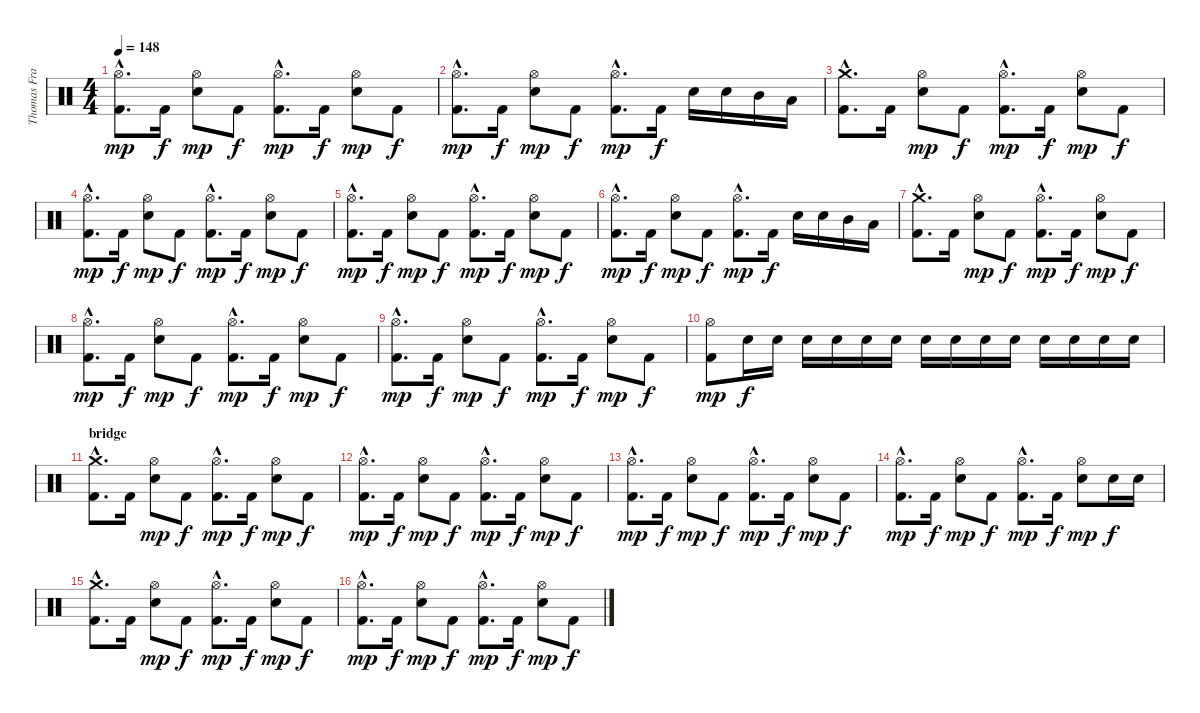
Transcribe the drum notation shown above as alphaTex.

\track ("Thomas Franke" "Thomas Fra") {instrument percussion}
\staff {score}
\articulation defaults
\ts (4 4)
\tempo 148
\clef neutral
\ks c
("Kick (hit) 2"{hac} "Hi-Hat (open)"{hac}).8{d dy mp} "Kick (hit) 2".16{dy f} ("Hi-Hat (open)" "Snare (hit) 2").8{dy mp} "Kick (hit) 2".8{dy f} ("Kick (hit) 2"{hac} "Hi-Hat (open)"{hac}).8{d dy mp} "Kick (hit) 2".16{dy f} ("Hi-Hat (open)" "Snare (hit) 2").8{dy mp} "Kick (hit) 2".8{dy f} |
("Kick (hit) 2"{hac} "Hi-Hat (open)"{hac}).8{d dy mp} "Kick (hit) 2".16{dy f} ("Hi-Hat (open)" "Snare (hit) 2").8{dy mp} "Kick (hit) 2".8{dy f} ("Kick (hit) 2"{hac} "Hi-Hat (open)"{hac}).8{d dy mp} "Kick (hit) 2".16{dy f} "Snare (hit) 2".16 "Snare (hit) 2".16 "Mid Tom (hit)".16 "Low Tom (hit)".16 |
("Kick (hit) 2"{hac} "Crash medium (hit)"{hac}).8{d} "Kick (hit) 2".16 ("Hi-Hat (open)" "Snare (hit) 2").8{dy mp} "Kick (hit) 2".8{dy f} ("Kick (hit) 2"{hac} "Hi-Hat (open)"{hac}).8{d dy mp} "Kick (hit) 2".16{dy f} ("Hi-Hat (open)" "Snare (hit) 2").8{dy mp} "Kick (hit) 2".8{dy f} |
("Kick (hit) 2"{hac} "Hi-Hat (open)"{hac}).8{d dy mp} "Kick (hit) 2".16{dy f} ("Hi-Hat (open)" "Snare (hit) 2").8{dy mp} "Kick (hit) 2".8{dy f} ("Kick (hit) 2"{hac} "Hi-Hat (open)"{hac}).8{d dy mp} "Kick (hit) 2".16{dy f} ("Hi-Hat (open)" "Snare (hit) 2").8{dy mp} "Kick (hit) 2".8{dy f} |
("Kick (hit) 2"{hac} "Hi-Hat (open)"{hac}).8{d dy mp} "Kick (hit) 2".16{dy f} ("Hi-Hat (open)" "Snare (hit) 2").8{dy mp} "Kick (hit) 2".8{dy f} ("Kick (hit) 2"{hac} "Hi-Hat (open)"{hac}).8{d dy mp} "Kick (hit) 2".16{dy f} ("Hi-Hat (open)" "Snare (hit) 2").8{dy mp} "Kick (hit) 2".8{dy f} |
("Kick (hit) 2"{hac} "Hi-Hat (open)"{hac}).8{d dy mp} "Kick (hit) 2".16{dy f} ("Hi-Hat (open)" "Snare (hit) 2").8{dy mp} "Kick (hit) 2".8{dy f} ("Kick (hit) 2"{hac} "Hi-Hat (open)"{hac}).8{d dy mp} "Kick (hit) 2".16{dy f} "Snare (hit) 2".16 "Snare (hit) 2".16 "Mid Tom (hit)".16 "Low Tom (hit)".16 |
("Kick (hit) 2"{hac} "Crash medium (hit)"{hac}).8{d} "Kick (hit) 2".16 ("Hi-Hat (open)" "Snare (hit) 2").8{dy mp} "Kick (hit) 2".8{dy f} ("Kick (hit) 2"{hac} "Hi-Hat (open)"{hac}).8{d dy mp} "Kick (hit) 2".16{dy f} ("Hi-Hat (open)" "Snare (hit) 2").8{dy mp} "Kick (hit) 2".8{dy f} |
("Kick (hit) 2"{hac} "Hi-Hat (open)"{hac}).8{d dy mp} "Kick (hit) 2".16{dy f} ("Hi-Hat (open)" "Snare (hit) 2").8{dy mp} "Kick (hit) 2".8{dy f} ("Kick (hit) 2"{hac} "Hi-Hat (open)"{hac}).8{d dy mp} "Kick (hit) 2".16{dy f} ("Hi-Hat (open)" "Snare (hit) 2").8{dy mp} "Kick (hit) 2".8{dy f} |
("Kick (hit) 2"{hac} "Hi-Hat (open)"{hac}).8{d dy mp} "Kick (hit) 2".16{dy f} ("Hi-Hat (open)" "Snare (hit) 2").8{dy mp} "Kick (hit) 2".8{dy f} ("Kick (hit) 2"{hac} "Hi-Hat (open)"{hac}).8{d dy mp} "Kick (hit) 2".16{dy f} ("Hi-Hat (open)" "Snare (hit) 2").8{dy mp} "Kick (hit) 2".8{dy f} |
("Kick (hit) 2" "Hi-Hat (open)").8{dy mp} "Snare (hit) 2".16{dy f} "Snare (hit) 2".16 "Snare (hit) 2".16 "Snare (hit) 2".16 "Snare (hit) 2".16 "Snare (hit) 2".16 "Snare (hit) 2".16 "Snare (hit) 2".16 "Snare (hit) 2".16 "Snare (hit) 2".16 "Snare (hit) 2".16 "Snare (hit) 2".16 "Snare (hit) 2".16 "Snare (hit) 2".16 |
\section ("" "bridge")
("Kick (hit) 2"{hac} "Crash medium (hit)"{hac}).8{d} "Kick (hit) 2".16 ("Hi-Hat (open)" "Snare (hit) 2").8{dy mp} "Kick (hit) 2".8{dy f} ("Kick (hit) 2"{hac} "Hi-Hat (open)"{hac}).8{d dy mp} "Kick (hit) 2".16{dy f} ("Hi-Hat (open)" "Snare (hit) 2").8{dy mp} "Kick (hit) 2".8{dy f} |
("Kick (hit) 2"{hac} "Hi-Hat (open)"{hac}).8{d dy mp} "Kick (hit) 2".16{dy f} ("Hi-Hat (open)" "Snare (hit) 2").8{dy mp} "Kick (hit) 2".8{dy f} ("Kick (hit) 2"{hac} "Hi-Hat (open)"{hac}).8{d dy mp} "Kick (hit) 2".16{dy f} ("Hi-Hat (open)" "Snare (hit) 2").8{dy mp} "Kick (hit) 2".8{dy f} |
("Kick (hit) 2"{hac} "Hi-Hat (open)"{hac}).8{d dy mp} "Kick (hit) 2".16{dy f} ("Hi-Hat (open)" "Snare (hit) 2").8{dy mp} "Kick (hit) 2".8{dy f} ("Kick (hit) 2"{hac} "Hi-Hat (open)"{hac}).8{d dy mp} "Kick (hit) 2".16{dy f} ("Hi-Hat (open)" "Snare (hit) 2").8{dy mp} "Kick (hit) 2".8{dy f} |
("Kick (hit) 2"{hac} "Hi-Hat (open)"{hac}).8{d dy mp} "Kick (hit) 2".16{dy f} ("Hi-Hat (open)" "Snare (hit) 2").8{dy mp} "Kick (hit) 2".8{dy f} ("Kick (hit) 2"{hac} "Hi-Hat (open)"{hac}).8{d dy mp} "Kick (hit) 2".16{dy f} ("Hi-Hat (open)" "Snare (hit) 2").8{dy mp} "Snare (hit) 2".16{dy f} "Snare (hit) 2".16 |
("Kick (hit) 2"{hac} "Crash medium (hit)"{hac}).8{d} "Kick (hit) 2".16 ("Hi-Hat (open)" "Snare (hit) 2").8{dy mp} "Kick (hit) 2".8{dy f} ("Kick (hit) 2"{hac} "Hi-Hat (open)"{hac}).8{d dy mp} "Kick (hit) 2".16{dy f} ("Hi-Hat (open)" "Snare (hit) 2").8{dy mp} "Kick (hit) 2".8{dy f} |
("Kick (hit) 2"{hac} "Hi-Hat (open)"{hac}).8{d dy mp} "Kick (hit) 2".16{dy f} ("Hi-Hat (open)" "Snare (hit) 2").8{dy mp} "Kick (hit) 2".8{dy f} ("Kick (hit) 2"{hac} "Hi-Hat (open)"{hac}).8{d dy mp} "Kick (hit) 2".16{dy f} ("Hi-Hat (open)" "Snare (hit) 2").8{dy mp} "Kick (hit) 2".8{dy f}
